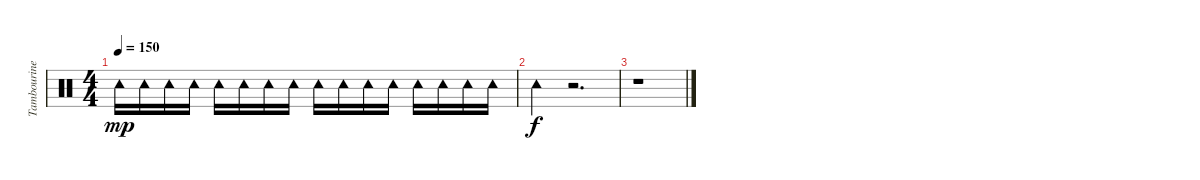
\track ("Tambourine" "Tambourine") {instrument percussion}
\staff {score}
\articulation defaults
\ts (4 4)
\tempo 150
\clef neutral
\ks c "Tambourine (hit)".16{dy mp} "Tambourine (hit)".16 "Tambourine (hit)".16 "Tambourine (hit)".16 "Tambourine (hit)".16 "Tambourine (hit)".16 "Tambourine (hit)".16 "Tambourine (hit)".16 "Tambourine (hit)".16 "Tambourine (hit)".16 "Tambourine (hit)".16 "Tambourine (hit)".16 "Tambourine (hit)".16 "Tambourine (hit)".16 "Tambourine (hit)".16 "Tambourine (hit)".16
|
"Tambourine (hit)".4{dy f} r.2{d} |
r.1
